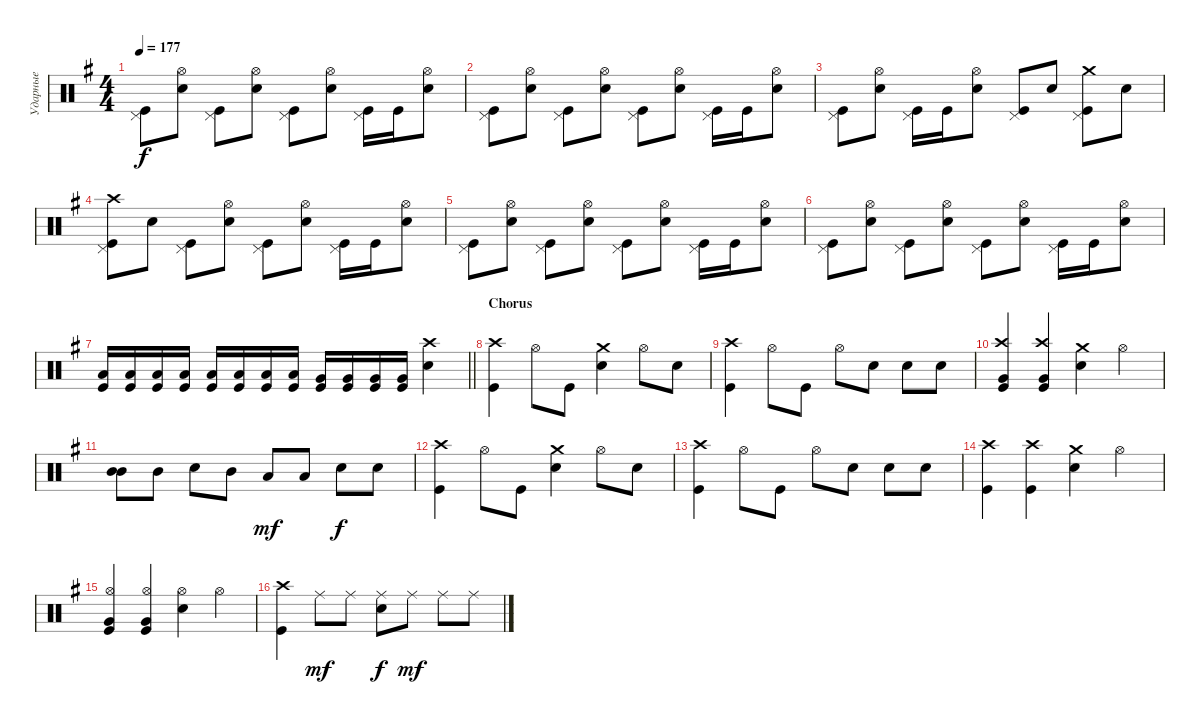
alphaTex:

\track ("Ударные" "Ударные") {instrument percussion}
\staff {score}
\articulation defaults
\ts (4 4)
\tempo 177
\clef neutral
\ks eminor
("Kick (hit)" "Pedal Hi-Hat (hit)").8{dy f} ("Hi-Hat (open)" "Snare (hit) 2").8 ("Kick (hit)" "Pedal Hi-Hat (hit)").8 ("Snare (hit) 2" "Hi-Hat (open)").8 ("Kick (hit)" "Pedal Hi-Hat (hit)").8 ("Hi-Hat (open)" "Snare (hit) 2").8 ("Kick (hit)" "Pedal Hi-Hat (hit)").16 "Kick (hit)".16 ("Snare (hit) 2" "Hi-Hat (open)").8 |
("Kick (hit)" "Pedal Hi-Hat (hit)").8 ("Hi-Hat (open)" "Snare (hit) 2").8 ("Kick (hit)" "Pedal Hi-Hat (hit)").8 ("Snare (hit) 2" "Hi-Hat (open)").8 ("Kick (hit)" "Pedal Hi-Hat (hit)").8 ("Hi-Hat (open)" "Snare (hit) 2").8 ("Kick (hit)" "Pedal Hi-Hat (hit)").16 "Kick (hit)".16 ("Snare (hit) 2" "Hi-Hat (open)").8 |
("Kick (hit)" "Pedal Hi-Hat (hit)").8 ("Hi-Hat (open)" "Snare (hit) 2").8 ("Kick (hit)" "Pedal Hi-Hat (hit)").16 "Kick (hit)".16 ("Snare (hit) 2" "Hi-Hat (open)").8 ("Kick (hit)" "Pedal Hi-Hat (hit)").8 "Snare (hit) 2".8 ("Kick (hit)" "Pedal Hi-Hat (hit)" "Crash medium (hit)").8 "Snare (hit) 2".8 |
("Kick (hit)" "Crash high (hit)" "Pedal Hi-Hat (hit)").8 "Snare (hit) 2".8 ("Kick (hit)" "Pedal Hi-Hat (hit)").8 ("Snare (hit) 2" "Hi-Hat (open)").8 ("Kick (hit)" "Pedal Hi-Hat (hit)").8 ("Hi-Hat (open)" "Snare (hit) 2").8 ("Kick (hit)" "Pedal Hi-Hat (hit)").16 "Kick (hit)".16 ("Snare (hit) 2" "Hi-Hat (open)").8 |
("Kick (hit)" "Pedal Hi-Hat (hit)").8 ("Hi-Hat (open)" "Snare (hit) 2").8 ("Kick (hit)" "Pedal Hi-Hat (hit)").8 ("Snare (hit) 2" "Hi-Hat (open)").8 ("Kick (hit)" "Pedal Hi-Hat (hit)").8 ("Hi-Hat (open)" "Snare (hit) 2").8 ("Kick (hit)" "Pedal Hi-Hat (hit)").16 "Kick (hit)".16 ("Snare (hit) 2" "Hi-Hat (open)").8 |
("Kick (hit)" "Pedal Hi-Hat (hit)").8 ("Hi-Hat (open)" "Snare (hit) 2").8 ("Kick (hit)" "Pedal Hi-Hat (hit)").8 ("Snare (hit) 2" "Hi-Hat (open)").8 ("Kick (hit)" "Pedal Hi-Hat (hit)").8 ("Hi-Hat (open)" "Snare (hit) 2").8 ("Kick (hit)" "Pedal Hi-Hat (hit)").16 "Kick (hit)".16 ("Snare (hit) 2" "Hi-Hat (open)").8 |
\barLineRight lightlight
("Kick (hit)" "Low Tom (hit)").16 ("Kick (hit)" "Low Tom (hit)").16 ("Kick (hit)" "Low Tom (hit)").16 ("Kick (hit)" "Low Tom (hit)").16 ("Kick (hit)" "Low Tom (hit)").16 ("Kick (hit)" "Low Tom (hit)").16 ("Kick (hit)" "Low Tom (hit)").16 ("Kick (hit)" "Low Tom (hit)").16 ("Kick (hit)" "Very Low Tom (hit)").16 ("Kick (hit)" "Very Low Tom (hit)").16 ("Kick (hit)" "Very Low Tom (hit)").16 ("Kick (hit)" "Very Low Tom (hit)").16 ("Crash high (hit)" "Snare (hit) 2").4 |
\section ("" "Chorus")
("Kick (hit)" "Crash high (hit)").4 "Hi-Hat (open)".8 "Kick (hit)".8 ("Snare (hit) 2" "Crash medium (hit)").4 "Hi-Hat (open)".8 "Snare (hit) 2".8 |
("Kick (hit)" "Crash high (hit)").4 "Hi-Hat (open)".8 "Kick (hit)".8 "Hi-Hat (open)".8 "Snare (hit) 2".8 "Snare (hit) 2".8 "Snare (hit) 2".8 |
("Kick (hit)" "Crash high (hit)" "Very Low Tom (hit)").4 ("Kick (hit)" "Crash high (hit)" "Very Low Tom (hit)").4 ("Snare (hit) 2" "Crash medium (hit)").4 "Hi-Hat (open)".4 |
("Mid Tom (hit)" "Mid Tom (hit)").8{bd 240} "Mid Tom (hit)".8 "Snare (hit) 2".8 "Mid Tom (hit)".8 "Low Tom (hit)".8{dy mf} "Low Tom (hit)".8 "Snare (hit) 2".8{dy f} "Snare (hit) 2".8 |
("Kick (hit)" "Crash high (hit)").4 "Hi-Hat (open)".8 "Kick (hit)".8 ("Snare (hit) 2" "Crash medium (hit)").4 "Hi-Hat (open)".8 "Snare (hit) 2".8 |
("Kick (hit)" "Crash high (hit)").4 "Hi-Hat (open)".8 "Kick (hit)".8 "Hi-Hat (open)".8 "Snare (hit) 2".8 "Snare (hit) 2".8 "Snare (hit) 2".8 |
("Kick (hit)" "Crash high (hit)").4 ("Kick (hit)" "Crash high (hit)").4 ("Snare (hit) 2" "Crash medium (hit)").4 "Hi-Hat (open)".4 |
("Hi-Hat (open)" "Kick (hit)" "Very Low Tom (hit)").4 ("Hi-Hat (open)" "Kick (hit)" "Very Low Tom (hit)").4 ("Hi-Hat (open)" "Snare (hit) 2").4 "Hi-Hat (open)".4 |
("Crash high (hit)" "Kick (hit)").4 "Ride (middle)".8{dy mf} "Ride (middle)".8 ("Ride (middle)" "Snare (hit) 2").8{dy f} "Ride (middle)".8{dy mf} "Ride (middle)".8 "Ride (middle)".8
